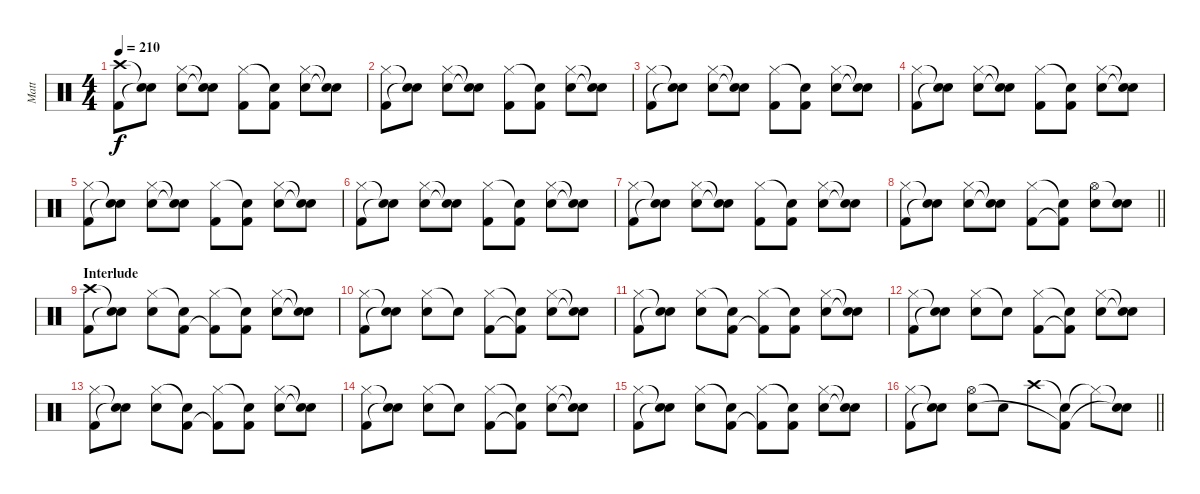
\track ("Matt" "Matt") {instrument percussion}
\staff {score}
\articulation defaults
\ts (4 4)
\tempo 210
\clef neutral
\ks c
("Crash high (hit)" "Kick (hit) 2").8{dy f} ("Snare (hit)"{t} "Snare (hit)"{t}).8 ("Hi-Hat (closed)" "Snare (hit) 2").8 ("Snare (hit)"{t} "Snare (hit)"{t}).8 ("Hi-Hat (closed)" "Kick (hit) 2").8 ("Snare (hit)"{t} "Kick (hit) 2").8 ("Hi-Hat (closed)" "Snare (hit) 2").8 ("Snare (hit)"{t} "Snare (hit)"{t}).8 |
("Hi-Hat (closed)" "Kick (hit) 2").8 ("Snare (hit)"{t} "Snare (hit)"{t}).8 ("Hi-Hat (closed)" "Snare (hit) 2").8 ("Snare (hit)"{t} "Snare (hit)"{t}).8 ("Hi-Hat (closed)" "Kick (hit) 2").8 ("Snare (hit)"{t} "Kick (hit) 2").8 ("Hi-Hat (closed)" "Snare (hit) 2").8 ("Snare (hit)"{t} "Snare (hit)"{t}).8 |
("Hi-Hat (closed)" "Kick (hit) 2").8 ("Snare (hit)"{t} "Snare (hit)"{t}).8 ("Hi-Hat (closed)" "Snare (hit) 2").8 ("Snare (hit)"{t} "Snare (hit)"{t}).8 ("Hi-Hat (closed)" "Kick (hit) 2").8 ("Snare (hit)"{t} "Kick (hit) 2").8 ("Hi-Hat (closed)" "Snare (hit) 2").8 ("Snare (hit)"{t} "Snare (hit)"{t}).8 |
("Hi-Hat (closed)" "Kick (hit) 2").8 ("Snare (hit)"{t} "Snare (hit)"{t}).8 ("Hi-Hat (closed)" "Snare (hit) 2").8 ("Snare (hit)"{t} "Snare (hit)"{t}).8 ("Hi-Hat (closed)" "Kick (hit) 2").8 ("Snare (hit)"{t} "Kick (hit) 2").8 ("Hi-Hat (closed)" "Snare (hit) 2").8 ("Snare (hit)"{t} "Snare (hit)"{t}).8 |
("Hi-Hat (closed)" "Kick (hit) 2").8 ("Snare (hit)"{t} "Snare (hit)"{t}).8 ("Hi-Hat (closed)" "Snare (hit) 2").8 ("Snare (hit)"{t} "Snare (hit)"{t}).8 ("Hi-Hat (closed)" "Kick (hit) 2").8 ("Snare (hit)"{t} "Kick (hit) 2").8 ("Hi-Hat (closed)" "Snare (hit) 2").8 ("Snare (hit)"{t} "Snare (hit)"{t}).8 |
("Hi-Hat (closed)" "Kick (hit) 2").8 ("Snare (hit)"{t} "Snare (hit)"{t}).8 ("Hi-Hat (closed)" "Snare (hit) 2").8 ("Snare (hit)"{t} "Snare (hit)"{t}).8 ("Hi-Hat (closed)" "Kick (hit) 2").8 ("Snare (hit)"{t} "Kick (hit) 2").8 ("Hi-Hat (closed)" "Snare (hit) 2").8 ("Snare (hit)"{t} "Snare (hit)"{t}).8 |
("Hi-Hat (closed)" "Kick (hit) 2").8 ("Snare (hit)"{t} "Snare (hit)"{t}).8 ("Hi-Hat (closed)" "Snare (hit) 2").8 ("Snare (hit)"{t} "Snare (hit)"{t}).8 ("Hi-Hat (closed)" "Kick (hit) 2").8 ("Snare (hit)"{t} "Kick (hit) 2").8 ("Hi-Hat (closed)" "Snare (hit) 2").8 ("Snare (hit)"{t} "Snare (hit)"{t}).8 |
\barLineRight lightlight
("Hi-Hat (closed)" "Kick (hit) 2").8 ("Snare (hit)"{t} "Snare (hit)"{t}).8 ("Hi-Hat (closed)" "Snare (hit) 2").8 ("Snare (hit)"{t} "Snare (hit)"{t}).8 ("Hi-Hat (closed)" "Kick (hit) 2").8 ("Snare (hit)"{t} "Kick (hit) 2"{t}).8 ("Hi-Hat (open)" "Snare (hit) 2").8 ("Snare (hit)"{t} "Snare (hit) 2").8 |
\section ("" "Interlude")
("Crash high (hit)" "Kick (hit) 2").8 ("Snare (hit)"{t} "Snare (hit)"{t}).8 ("Hi-Hat (closed)" "Snare (hit) 2").8 ("Snare (hit)"{t} "Kick (hit) 2").8 ("Hi-Hat (closed)" "Kick (hit) 2"{t}).8 ("Snare (hit)"{t} "Kick (hit) 2").8 ("Hi-Hat (closed)" "Snare (hit) 2").8 ("Snare (hit)"{t} "Snare (hit)"{t}).8 |
("Hi-Hat (closed)" "Kick (hit) 2").8 ("Snare (hit)"{t} "Snare (hit)"{t}).8 ("Hi-Hat (closed)" "Snare (hit) 2").8 "Snare (hit)"{t}.8 ("Hi-Hat (closed)" "Kick (hit) 2").8 ("Snare (hit)"{t} "Kick (hit) 2"{t}).8 ("Hi-Hat (closed)" "Snare (hit) 2").8 ("Snare (hit)"{t} "Snare (hit)"{t}).8 |
("Hi-Hat (closed)" "Kick (hit) 2").8 ("Snare (hit)"{t} "Snare (hit)"{t}).8 ("Hi-Hat (closed)" "Snare (hit) 2").8 ("Snare (hit)"{t} "Kick (hit) 2").8 ("Hi-Hat (closed)" "Kick (hit) 2"{t}).8 ("Snare (hit)"{t} "Kick (hit) 2").8 ("Hi-Hat (closed)" "Snare (hit) 2").8 ("Snare (hit)"{t} "Snare (hit)"{t}).8 |
("Hi-Hat (closed)" "Kick (hit) 2").8 ("Snare (hit)"{t} "Snare (hit)"{t}).8 ("Hi-Hat (closed)" "Snare (hit) 2").8 "Snare (hit)"{t}.8 ("Hi-Hat (closed)" "Kick (hit) 2").8 ("Snare (hit)"{t} "Kick (hit) 2"{t}).8 ("Hi-Hat (closed)" "Snare (hit) 2").8 ("Snare (hit)"{t} "Snare (hit)"{t}).8 |
("Hi-Hat (closed)" "Kick (hit) 2").8 ("Snare (hit)"{t} "Snare (hit)"{t}).8 ("Hi-Hat (closed)" "Snare (hit) 2").8 ("Snare (hit)"{t} "Kick (hit) 2").8 ("Hi-Hat (closed)" "Kick (hit) 2"{t}).8 ("Snare (hit)"{t} "Kick (hit) 2").8 ("Hi-Hat (closed)" "Snare (hit) 2").8 ("Snare (hit)"{t} "Snare (hit)"{t}).8 |
("Hi-Hat (closed)" "Kick (hit) 2").8 ("Snare (hit)"{t} "Snare (hit)"{t}).8 ("Hi-Hat (closed)" "Snare (hit) 2").8 "Snare (hit)"{t}.8 ("Hi-Hat (closed)" "Kick (hit) 2").8 ("Snare (hit)"{t} "Kick (hit) 2"{t}).8 ("Hi-Hat (closed)" "Snare (hit) 2").8 ("Snare (hit)"{t} "Snare (hit)"{t}).8 |
("Hi-Hat (closed)" "Kick (hit) 2").8 ("Snare (hit)"{t} "Snare (hit)"{t}).8 ("Hi-Hat (closed)" "Snare (hit) 2").8 ("Snare (hit)"{t} "Kick (hit) 2").8 ("Hi-Hat (closed)" "Kick (hit) 2"{t}).8 ("Snare (hit)"{t} "Kick (hit) 2").8 ("Hi-Hat (closed)" "Snare (hit) 2").8 ("Snare (hit)"{t} "Snare (hit)"{t}).8 |
\barLineRight lightlight
("Hi-Hat (closed)" "Kick (hit) 2").8 ("Snare (hit)"{t} "Snare (hit)"{t}).8 ("Hi-Hat (open)" "Snare (hit) 2").8 "Snare (hit)"{t}.8 "Crash high (hit)".8 ("Snare (hit)"{t} "Kick (hit) 2"{t}).8 "Hi-Hat (closed)"{t}.8 ("Snare (hit)"{t} "Snare (hit)"{t}).8
